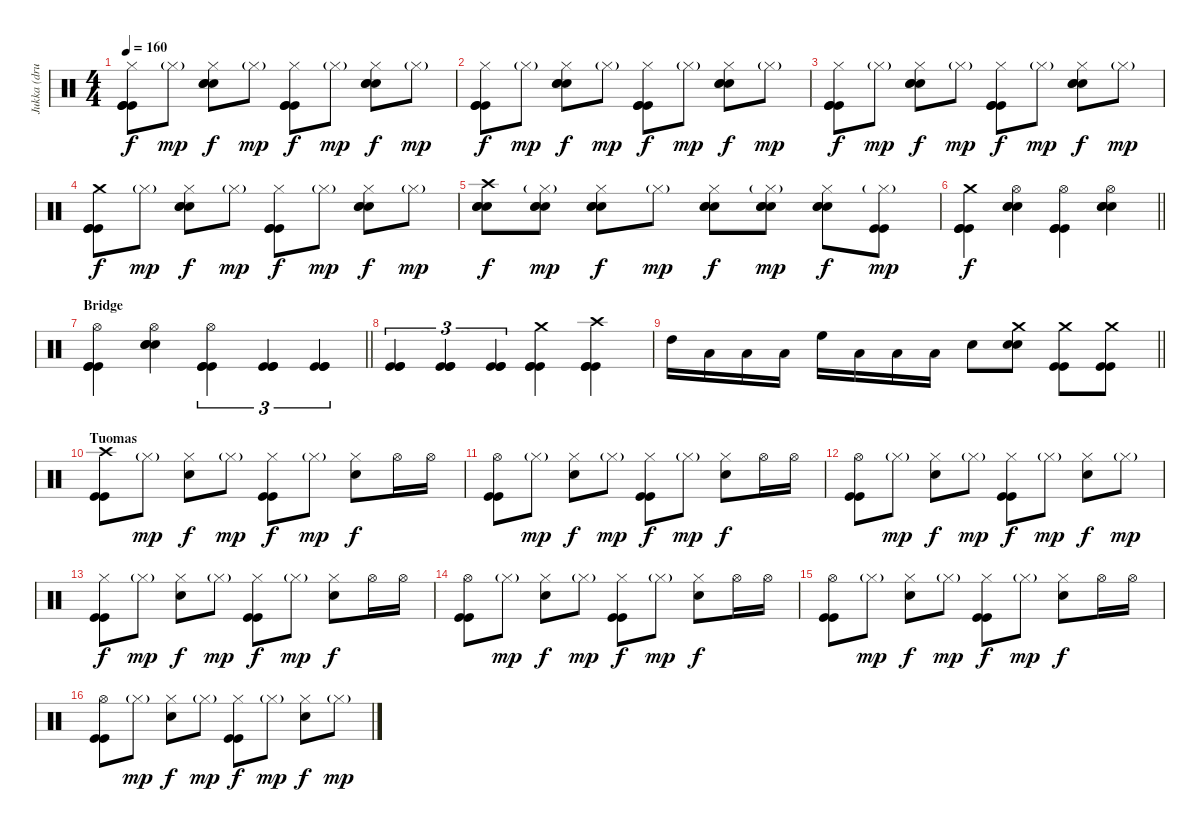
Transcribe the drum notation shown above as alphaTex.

\track ("Jukka (drums)" "Jukka (dru") {instrument percussion}
\staff {score}
\articulation defaults
\ts (4 4)
\tempo 160
\clef neutral
\ks c
("Hi-Hat (closed)" "Kick (hit)" "Kick (hit)" "Kick (hit)").8{dy f} "Hi-Hat (closed)"{g}.8{dy mp} ("Hi-Hat (closed)" "Electric Snare (hit)" "Electric Snare (hit)" "Electric Snare (hit)").8{dy f} "Hi-Hat (closed)"{g}.8{dy mp} ("Hi-Hat (closed)" "Kick (hit)" "Kick (hit)" "Kick (hit)").8{dy f} "Hi-Hat (closed)"{g}.8{dy mp} ("Hi-Hat (closed)" "Electric Snare (hit)" "Electric Snare (hit)" "Electric Snare (hit)").8{dy f} "Hi-Hat (closed)"{g}.8{dy mp} |
("Hi-Hat (closed)" "Kick (hit)" "Kick (hit)" "Kick (hit)").8{dy f} "Hi-Hat (closed)"{g}.8{dy mp} ("Hi-Hat (closed)" "Electric Snare (hit)" "Electric Snare (hit)" "Electric Snare (hit)").8{dy f} "Hi-Hat (closed)"{g}.8{dy mp} ("Hi-Hat (closed)" "Kick (hit)" "Kick (hit)" "Kick (hit)").8{dy f} "Hi-Hat (closed)"{g}.8{dy mp} ("Hi-Hat (closed)" "Electric Snare (hit)" "Electric Snare (hit)" "Electric Snare (hit)").8{dy f} "Hi-Hat (closed)"{g}.8{dy mp} |
("Hi-Hat (closed)" "Kick (hit)" "Kick (hit)" "Kick (hit)").8{dy f} "Hi-Hat (closed)"{g}.8{dy mp} ("Hi-Hat (closed)" "Electric Snare (hit)" "Electric Snare (hit)" "Electric Snare (hit)").8{dy f} "Hi-Hat (closed)"{g}.8{dy mp} ("Hi-Hat (closed)" "Kick (hit)" "Kick (hit)" "Kick (hit)").8{dy f} "Hi-Hat (closed)"{g}.8{dy mp} ("Hi-Hat (closed)" "Electric Snare (hit)" "Electric Snare (hit)" "Electric Snare (hit)").8{dy f} "Hi-Hat (closed)"{g}.8{dy mp} |
("Crash medium (hit)" "Kick (hit)" "Kick (hit)" "Kick (hit)").8{dy f} "Hi-Hat (closed)"{g}.8{dy mp} ("Hi-Hat (closed)" "Electric Snare (hit)" "Electric Snare (hit)" "Electric Snare (hit)").8{dy f} "Hi-Hat (closed)"{g}.8{dy mp} ("Hi-Hat (closed)" "Kick (hit)" "Kick (hit)" "Kick (hit)").8{dy f} "Hi-Hat (closed)"{g}.8{dy mp} ("Hi-Hat (closed)" "Electric Snare (hit)" "Electric Snare (hit)" "Electric Snare (hit)").8{dy f} "Hi-Hat (closed)"{g}.8{dy mp} |
("Crash high (hit)" "Electric Snare (hit)" "Electric Snare (hit)" "Electric Snare (hit)").8{dy f} ("Hi-Hat (closed)"{g} "Electric Snare (hit)" "Electric Snare (hit)" "Electric Snare (hit)").8{dy mp} ("Hi-Hat (closed)" "Electric Snare (hit)" "Electric Snare (hit)" "Electric Snare (hit)").8{dy f} "Hi-Hat (closed)"{g}.8{dy mp} ("Hi-Hat (closed)" "Electric Snare (hit)" "Electric Snare (hit)" "Electric Snare (hit)").8{dy f} ("Hi-Hat (closed)"{g} "Electric Snare (hit)" "Electric Snare (hit)" "Electric Snare (hit)").8{dy mp} ("Hi-Hat (closed)" "Electric Snare (hit)" "Electric Snare (hit)" "Electric Snare (hit)").8{dy f} ("Hi-Hat (closed)"{g} "Kick (hit)" "Kick (hit)").8{dy mp} |
\barLineRight lightlight
("Crash medium (hit)" "Kick (hit)" "Kick (hit)" "Kick (hit)").4{dy f} ("Hi-Hat (open)" "Electric Snare (hit)" "Electric Snare (hit)" "Electric Snare (hit)").4 ("Hi-Hat (open)" "Kick (hit)" "Kick (hit)" "Kick (hit)").4 ("Hi-Hat (open)" "Electric Snare (hit)" "Electric Snare (hit)" "Electric Snare (hit)").4 |
\section ("" "Bridge")
\barLineRight lightlight
("Hi-Hat (open)" "Kick (hit)" "Kick (hit)" "Kick (hit)").4 ("Hi-Hat (open)" "Electric Snare (hit)" "Electric Snare (hit)" "Electric Snare (hit)").4 ("Hi-Hat (open)" "Kick (hit)" "Kick (hit)" "Kick (hit)").4{tu (3 2)} ("Kick (hit)" "Kick (hit)" "Kick (hit)").4{tu (3 2)} ("Kick (hit)" "Kick (hit)" "Kick (hit)").4{tu (3 2)} |
("Kick (hit)" "Kick (hit)" "Kick (hit)").4{tu (3 2)} ("Kick (hit)" "Kick (hit)" "Kick (hit)").4{tu (3 2)} ("Kick (hit)" "Kick (hit)" "Kick (hit)").4{tu (3 2)} ("Crash medium (hit)" "Kick (hit)" "Kick (hit)" "Kick (hit)").4 ("Crash high (hit)" "Kick (hit)" "Kick (hit)" "Kick (hit)").4 |
\barLineRight lightlight "High Tom (hit)".16 "Low Tom (hit)".16 "Low Tom (hit)".16 "Low Tom (hit)".16 "High Floor Tom (hit)".16 "Low Tom (hit)".16 "Low Tom (hit)".16 "Low Floor Tom (hit)".16 "Electric Snare (hit)".8
("Crash medium (hit)" "Electric Snare (hit)" "Electric Snare (hit)").8 ("Crash medium (hit)" "Kick (hit)" "Kick (hit)").8 ("Crash medium (hit)" "Kick (hit)" "Kick (hit)").8 |
\section ("" "Tuomas")
("Crash high (hit)" "Kick (hit)" "Kick (hit)").8 "Hi-Hat (closed)"{g}.8{dy mp} ("Hi-Hat (closed)" "Electric Snare (hit)").8{dy f} "Hi-Hat (closed)"{g}.8{dy mp} ("Hi-Hat (closed)" "Kick (hit)" "Kick (hit)").8{dy f} "Hi-Hat (closed)"{g}.8{dy mp} ("Hi-Hat (closed)" "Electric Snare (hit)").8{dy f} "Hi-Hat (open)".16 "Hi-Hat (open)".16 |
("Hi-Hat (open)" "Kick (hit)" "Kick (hit)").8 "Hi-Hat (closed)"{g}.8{dy mp} ("Hi-Hat (closed)" "Electric Snare (hit)").8{dy f} "Hi-Hat (closed)"{g}.8{dy mp} ("Hi-Hat (closed)" "Kick (hit)" "Kick (hit)").8{dy f} "Hi-Hat (closed)"{g}.8{dy mp} ("Hi-Hat (closed)" "Electric Snare (hit)").8{dy f} "Hi-Hat (open)".16 "Hi-Hat (open)".16 |
("Hi-Hat (open)" "Kick (hit)" "Kick (hit)").8 "Hi-Hat (closed)"{g}.8{dy mp} ("Hi-Hat (closed)" "Electric Snare (hit)").8{dy f} "Hi-Hat (closed)"{g}.8{dy mp} ("Hi-Hat (closed)" "Kick (hit)" "Kick (hit)").8{dy f} "Hi-Hat (closed)"{g}.8{dy mp} ("Hi-Hat (closed)" "Electric Snare (hit)").8{dy f} "Hi-Hat (closed)"{g}.8{dy mp} |
("Hi-Hat (closed)" "Kick (hit)" "Kick (hit)").8{dy f} "Hi-Hat (closed)"{g}.8{dy mp} ("Hi-Hat (closed)" "Electric Snare (hit)").8{dy f} "Hi-Hat (closed)"{g}.8{dy mp} ("Hi-Hat (closed)" "Kick (hit)" "Kick (hit)").8{dy f} "Hi-Hat (closed)"{g}.8{dy mp} ("Hi-Hat (closed)" "Electric Snare (hit)").8{dy f} "Hi-Hat (open)".16 "Hi-Hat (open)".16 |
("Hi-Hat (open)" "Kick (hit)" "Kick (hit)").8 "Hi-Hat (closed)"{g}.8{dy mp} ("Hi-Hat (closed)" "Electric Snare (hit)").8{dy f} "Hi-Hat (closed)"{g}.8{dy mp} ("Hi-Hat (closed)" "Kick (hit)" "Kick (hit)").8{dy f} "Hi-Hat (closed)"{g}.8{dy mp} ("Hi-Hat (closed)" "Electric Snare (hit)").8{dy f} "Hi-Hat (open)".16 "Hi-Hat (open)".16 |
("Hi-Hat (open)" "Kick (hit)" "Kick (hit)").8 "Hi-Hat (closed)"{g}.8{dy mp} ("Hi-Hat (closed)" "Electric Snare (hit)").8{dy f} "Hi-Hat (closed)"{g}.8{dy mp} ("Hi-Hat (closed)" "Kick (hit)" "Kick (hit)").8{dy f} "Hi-Hat (closed)"{g}.8{dy mp} ("Hi-Hat (closed)" "Electric Snare (hit)").8{dy f} "Hi-Hat (open)".16 "Hi-Hat (open)".16 |
("Hi-Hat (open)" "Kick (hit)" "Kick (hit)").8 "Hi-Hat (closed)"{g}.8{dy mp} ("Hi-Hat (closed)" "Electric Snare (hit)").8{dy f} "Hi-Hat (closed)"{g}.8{dy mp} ("Hi-Hat (closed)" "Kick (hit)" "Kick (hit)").8{dy f} "Hi-Hat (closed)"{g}.8{dy mp} ("Hi-Hat (closed)" "Electric Snare (hit)").8{dy f} "Hi-Hat (closed)"{g}.8{dy mp}
